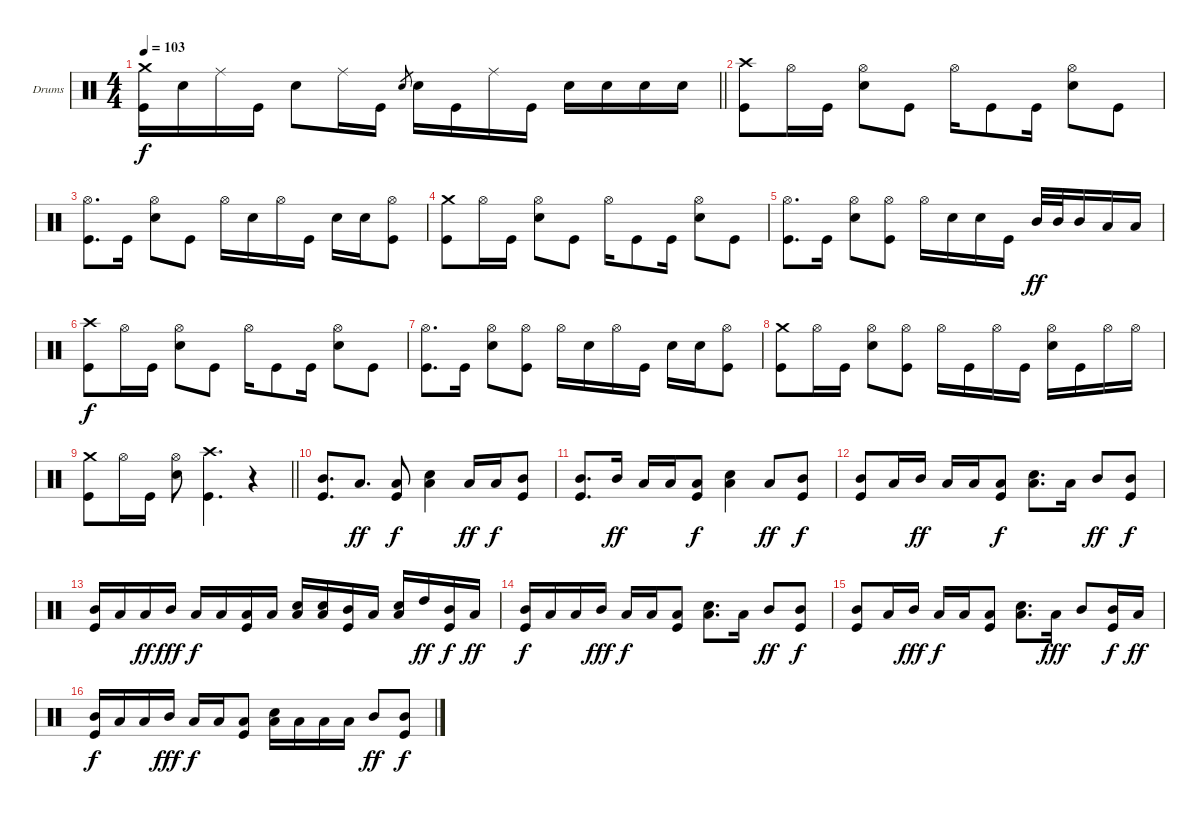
\bracketExtendMode groupsimilarinstruments
\firstSystemTrackNameOrientation horizontal
\otherSystemsTrackNameOrientation horizontal
\track ("Drums" "Drums") {instrument percussion}
\staff {score}
\articulation defaults
\ts (4 4)
\tempo 103
\clef neutral
\barLineRight lightlight
\ks c
("Kick (hit)" "Crash medium (hit)").16{dy f} "Snare (hit) 2".16 "Ride (middle)".16 "Kick (hit)".16 "Snare (hit) 2".8 "Ride (middle)".16 "Kick (hit)".16 "Snare (hit) 2".8{gr} "Snare (hit) 2".16 "Kick (hit)".16 "Ride (middle)".16 "Kick (hit)".16 "Snare (hit) 2".16 "Snare (hit) 2".16 "Snare (hit) 2".16 "Snare (hit) 2".16 |
("Kick (hit)" "Crash high (hit)").8 "Hi-Hat (open)".16 "Kick (hit)".16 ("Snare (hit) 2" "Hi-Hat (open)").8 "Kick (hit)".8 "Hi-Hat (open)".16 "Kick (hit)".8 "Kick (hit)".16 ("Snare (hit) 2" "Hi-Hat (open)").8 "Kick (hit)".8 |
("Kick (hit)" "Hi-Hat (open)").8{d} "Kick (hit)".16 ("Snare (hit) 2" "Hi-Hat (open)").8 "Kick (hit)".8 "Hi-Hat (open)".16 "Snare (hit) 2".16 "Hi-Hat (open)".16 "Kick (hit)".16 "Snare (hit) 2".16 "Snare (hit) 2".16 ("Kick (hit)" "Hi-Hat (open)").8 |
("Kick (hit)" "Crash medium (hit)").8 "Hi-Hat (open)".16 "Kick (hit)".16 ("Snare (hit) 2" "Hi-Hat (open)").8 "Kick (hit)".8 "Hi-Hat (open)".16 "Kick (hit)".8 "Kick (hit)".16 ("Snare (hit) 2" "Hi-Hat (open)").8 "Kick (hit)".8 |
("Kick (hit)" "Hi-Hat (open)").8{d} "Kick (hit)".16 ("Snare (hit) 2" "Hi-Hat (open)").8 ("Kick (hit)" "Hi-Hat (open)").8 "Hi-Hat (open)".16 "Snare (hit) 2".16 "Snare (hit) 2".16 "Kick (hit)".16 "Mid Tom (hit)".32{dy ff} "Mid Tom (hit)".32 "Mid Tom (hit)".16 "Low Tom (hit)".16 "Low Tom (hit)".16 |
("Kick (hit)" "Crash high (hit)").8{dy f} "Hi-Hat (open)".16 "Kick (hit)".16 ("Snare (hit) 2" "Hi-Hat (open)").8 "Kick (hit)".8 "Hi-Hat (open)".16 "Kick (hit)".8 "Kick (hit)".16 ("Snare (hit) 2" "Hi-Hat (open)").8 "Kick (hit)".8 |
("Kick (hit)" "Hi-Hat (open)").8{d} "Kick (hit)".16 ("Snare (hit) 2" "Hi-Hat (open)").8 ("Kick (hit)" "Hi-Hat (open)").8 "Hi-Hat (open)".16 "Snare (hit) 2".16 "Hi-Hat (open)".16 "Kick (hit)".16 "Snare (hit) 2".16 "Snare (hit) 2".16 ("Kick (hit)" "Hi-Hat (open)").8 |
("Kick (hit)" "Crash medium (hit)").8 "Hi-Hat (open)".16 "Kick (hit)".16 ("Snare (hit) 2" "Hi-Hat (open)").8 ("Kick (hit)" "Hi-Hat (open)").8 "Hi-Hat (open)".16 "Kick (hit)".16 "Hi-Hat (open)".16 "Kick (hit)".16 ("Snare (hit) 2" "Hi-Hat (open)").16 "Kick (hit)".16 "Hi-Hat (open)".16 "Hi-Hat (open)".16 |
\barLineRight lightlight
("Kick (hit)" "Crash medium (hit)").8 "Hi-Hat (open)".16 "Kick (hit)".16 ("Snare (hit) 2" "Hi-Hat (open)").8 ("Kick (hit)" "Crash high (hit)").4{d} r.4 |
("Mid Tom (hit)" "Kick (hit)").8{d} "Low Tom (hit)".8{d dy ff} ("Low Tom (hit)" "Kick (hit)").8{dy f} ("Snare (hit) 2" "Low Tom (hit)").4 "Low Tom (hit)".16{dy ff} "Low Tom (hit)".16{dy f} ("Mid Tom (hit)" "Kick (hit)").8 |
("Mid Tom (hit)" "Kick (hit)").8{d} "Mid Tom (hit)".16{dy ff} "Low Tom (hit)".16 "Low Tom (hit)".16 ("Low Tom (hit)" "Kick (hit)").8{dy f} ("Snare (hit) 2" "Low Tom (hit)").4 "Low Tom (hit)".8{dy ff} ("Mid Tom (hit)" "Kick (hit)").8{dy f} |
("Mid Tom (hit)" "Kick (hit)").8 "Low Tom (hit)".16 "Mid Tom (hit)".16{dy ff} "Low Tom (hit)".16 "Low Tom (hit)".16 ("Low Tom (hit)" "Kick (hit)").8{dy f} ("Snare (hit) 2" "Low Tom (hit)").8{d} "Low Tom (hit)".16 "Mid Tom (hit)".8{dy ff} ("Mid Tom (hit)" "Kick (hit)").8{dy f} |
("Mid Tom (hit)" "Kick (hit)").16 "Low Tom (hit)".16 "Low Tom (hit)".16{dy ff} "Mid Tom (hit)".16{dy fff} "Low Tom (hit)".16{dy f} "Low Tom (hit)".16 ("Low Tom (hit)" "Kick (hit)").16 "Low Tom (hit)".16 ("Snare (hit) 2" "Low Tom (hit)").16 ("Snare (hit) 2" "Low Tom (hit)").16 ("Kick (hit)" "Mid Tom (hit)").16 "Low Tom (hit)".16 ("Snare (hit) 2" "Low Tom (hit)").16 "High Tom (hit)".16{dy ff} ("Mid Tom (hit)" "Kick (hit)").16{dy f} "Low Tom (hit)".16{dy ff} |
("Mid Tom (hit)" "Kick (hit)").16{dy f} "Low Tom (hit)".16 "Low Tom (hit)".16 "Mid Tom (hit)".16{dy fff} "Low Tom (hit)".16{dy f} "Low Tom (hit)".16 ("Low Tom (hit)" "Kick (hit)").8 ("Snare (hit) 2" "Low Tom (hit)").8{d} "Low Tom (hit)".16 "Mid Tom (hit)".8{dy ff} ("Mid Tom (hit)" "Kick (hit)").8{dy f} |
("Mid Tom (hit)" "Kick (hit)").8 "Low Tom (hit)".16 "Mid Tom (hit)".16{dy fff} "Low Tom (hit)".16{dy f} "Low Tom (hit)".16 ("Low Tom (hit)" "Kick (hit)").8 ("Snare (hit) 2" "Low Tom (hit)").8{d} "Low Tom (hit)".16{dy fff} "Mid Tom (hit)".8 ("Mid Tom (hit)" "Kick (hit)").16{dy f} "Low Tom (hit)".16{dy ff} |
("Mid Tom (hit)" "Kick (hit)").16{dy f} "Low Tom (hit)".16 "Low Tom (hit)".16 "Mid Tom (hit)".16{dy fff} "Low Tom (hit)".16{dy f} "Low Tom (hit)".16 ("Low Tom (hit)" "Kick (hit)").8 ("Snare (hit) 2" "Low Tom (hit)").16 "Low Tom (hit)".16 "Low Tom (hit)".16 "Low Tom (hit)".16 "Mid Tom (hit)".8{dy ff} ("Mid Tom (hit)" "Kick (hit)").8{dy f}
